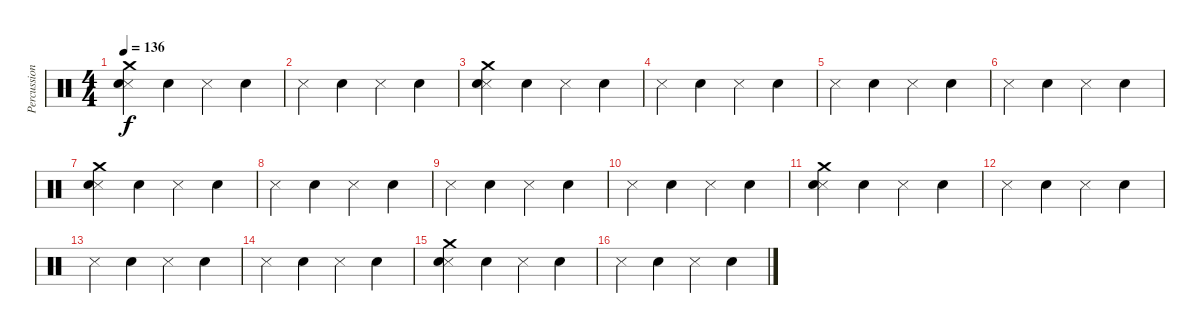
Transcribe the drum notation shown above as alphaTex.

\track ("Percussions" "Percussion") {instrument percussion}
\staff {score}
\articulation defaults
\ts (4 4)
\tempo 136
\clef neutral
\ks c
("Snare (side stick) 3" "Electric Snare (hit)" "Crash medium (hit)").4{dy f} "Electric Snare (hit)".4 "Snare (side stick) 3".4 "Electric Snare (hit)".4 |
"Snare (side stick) 3".4 "Electric Snare (hit)".4 "Snare (side stick) 3".4 "Electric Snare (hit)".4 |
("Snare (side stick) 3" "Electric Snare (hit)" "Crash medium (hit)").4 "Electric Snare (hit)".4 "Snare (side stick) 3".4 "Electric Snare (hit)".4 |
"Snare (side stick) 3".4 "Electric Snare (hit)".4 "Snare (side stick) 3".4 "Electric Snare (hit)".4 |
"Snare (side stick) 3".4 "Electric Snare (hit)".4 "Snare (side stick) 3".4 "Electric Snare (hit)".4 |
"Snare (side stick) 3".4 "Electric Snare (hit)".4 "Snare (side stick) 3".4 "Electric Snare (hit)".4 |
("Snare (side stick) 3" "Electric Snare (hit)" "Crash medium (hit)").4 "Electric Snare (hit)".4 "Snare (side stick) 3".4 "Electric Snare (hit)".4 |
"Snare (side stick) 3".4 "Electric Snare (hit)".4 "Snare (side stick) 3".4 "Electric Snare (hit)".4 |
"Snare (side stick) 3".4 "Electric Snare (hit)".4 "Snare (side stick) 3".4 "Electric Snare (hit)".4 |
"Snare (side stick) 3".4 "Electric Snare (hit)".4 "Snare (side stick) 3".4 "Electric Snare (hit)".4 |
("Snare (side stick) 3" "Electric Snare (hit)" "Crash medium (hit)").4 "Electric Snare (hit)".4 "Snare (side stick) 3".4 "Electric Snare (hit)".4 |
"Snare (side stick) 3".4 "Electric Snare (hit)".4 "Snare (side stick) 3".4 "Electric Snare (hit)".4 |
"Snare (side stick) 3".4 "Electric Snare (hit)".4 "Snare (side stick) 3".4 "Electric Snare (hit)".4 |
"Snare (side stick) 3".4 "Electric Snare (hit)".4 "Snare (side stick) 3".4 "Electric Snare (hit)".4 |
("Snare (side stick) 3" "Electric Snare (hit)" "Crash medium (hit)").4 "Electric Snare (hit)".4 "Snare (side stick) 3".4 "Electric Snare (hit)".4 |
"Snare (side stick) 3".4 "Electric Snare (hit)".4 "Snare (side stick) 3".4 "Electric Snare (hit)".4
